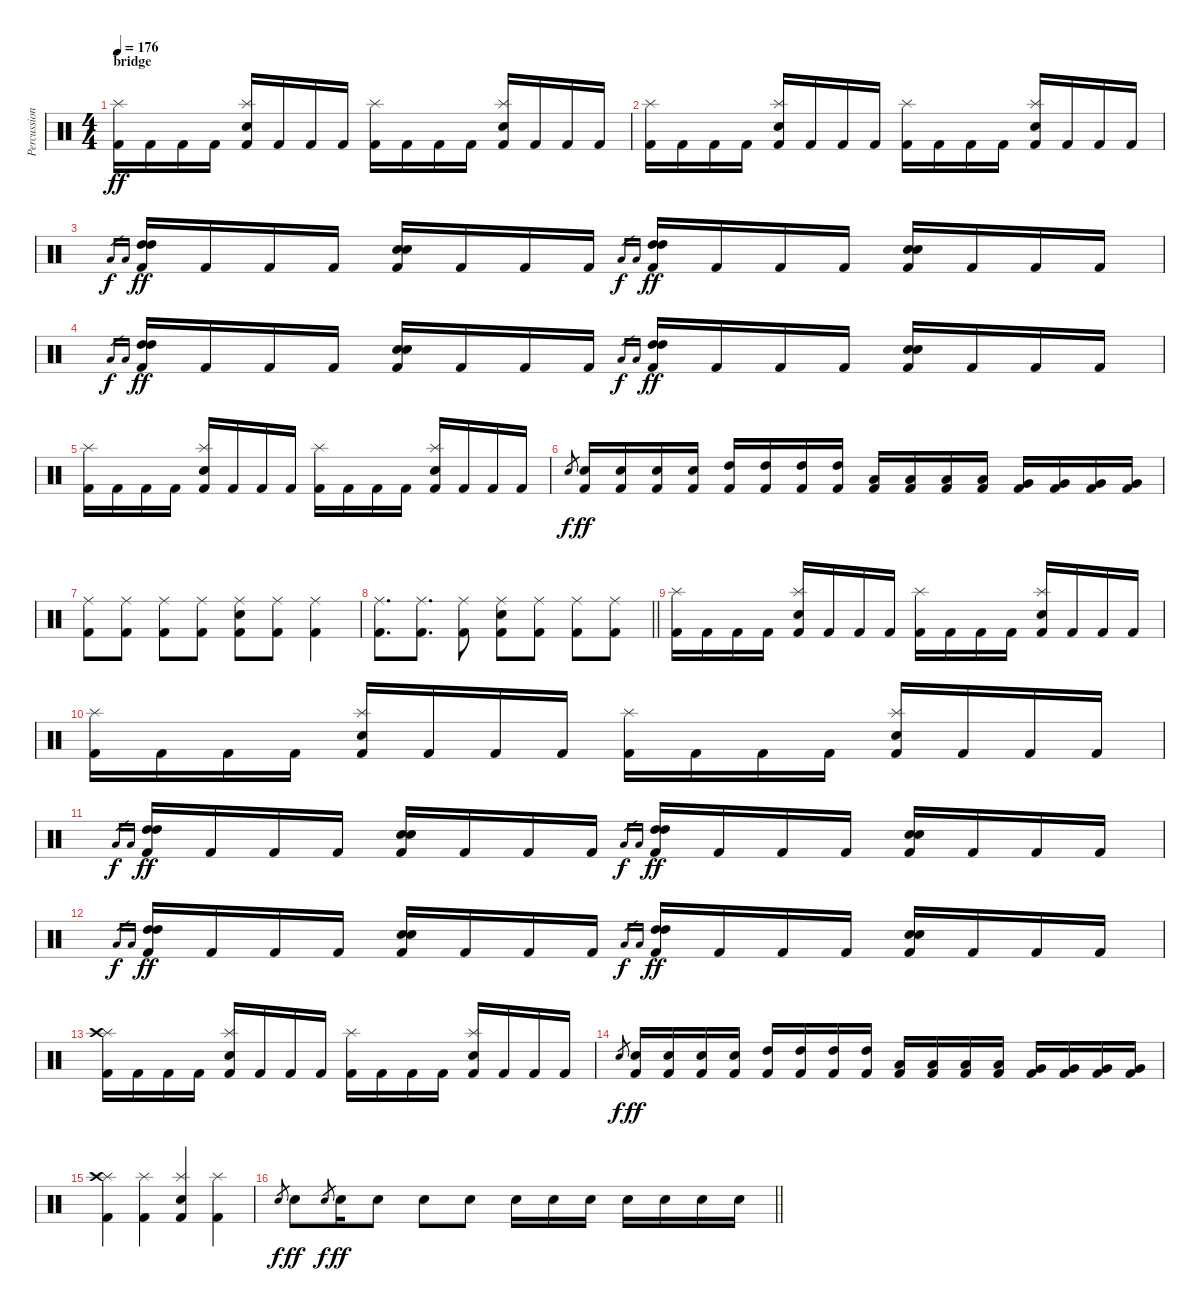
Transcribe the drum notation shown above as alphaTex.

\track ("Percussion" "Percussion") {instrument percussion}
\staff {score}
\articulation defaults
\ts (4 4)
\section ("" "bridge")
\tempo 176
\clef neutral
\ks c
("Kick (hit) 2" "Splash (hit)").16{dy ff} "Kick (hit) 2".16 "Kick (hit) 2".16 "Kick (hit) 2".16 ("Kick (hit) 2" "Electric Snare (hit)" "Splash (hit)").16 "Kick (hit) 2".16 "Kick (hit) 2".16 "Kick (hit) 2".16 ("Kick (hit) 2" "Splash (hit)").16 "Kick (hit) 2".16 "Kick (hit) 2".16 "Kick (hit) 2".16 ("Kick (hit) 2" "Electric Snare (hit)" "Splash (hit)").16 "Kick (hit) 2".16 "Kick (hit) 2".16 "Kick (hit) 2".16 |
("Kick (hit) 2" "Splash (hit)").16 "Kick (hit) 2".16 "Kick (hit) 2".16 "Kick (hit) 2".16 ("Kick (hit) 2" "Electric Snare (hit)" "Splash (hit)").16 "Kick (hit) 2".16 "Kick (hit) 2".16 "Kick (hit) 2".16 ("Kick (hit) 2" "Splash (hit)").16 "Kick (hit) 2".16 "Kick (hit) 2".16 "Kick (hit) 2".16 ("Kick (hit) 2" "Electric Snare (hit)" "Splash (hit)").16 "Kick (hit) 2".16 "Kick (hit) 2".16 "Kick (hit) 2".16 |
"Low Tom (hit)".16{gr dy f} "Low Tom (hit)".16{gr} ("Kick (hit) 2" "High Tom (hit)" "High Tom (hit)").16{dy ff} "Kick (hit) 2".16 "Kick (hit) 2".16 "Kick (hit) 2".16 ("Kick (hit) 2" "Electric Snare (hit)" "Electric Snare (hit)").16 "Kick (hit) 2".16 "Kick (hit) 2".16 "Kick (hit) 2".16 "Low Tom (hit)".16{gr dy f} "Low Tom (hit)".16{gr} ("Kick (hit) 2" "High Tom (hit)" "High Tom (hit)").16{dy ff} "Kick (hit) 2".16 "Kick (hit) 2".16 "Kick (hit) 2".16 ("Kick (hit) 2" "Electric Snare (hit)" "Electric Snare (hit)").16 "Kick (hit) 2".16 "Kick (hit) 2".16 "Kick (hit) 2".16 |
"Low Tom (hit)".16{gr dy f} "Low Tom (hit)".16{gr} ("Kick (hit) 2" "High Tom (hit)" "High Tom (hit)").16{dy ff} "Kick (hit) 2".16 "Kick (hit) 2".16 "Kick (hit) 2".16 ("Kick (hit) 2" "Electric Snare (hit)" "Electric Snare (hit)").16 "Kick (hit) 2".16 "Kick (hit) 2".16 "Kick (hit) 2".16 "Low Tom (hit)".16{gr dy f} "Low Tom (hit)".16{gr} ("Kick (hit) 2" "High Tom (hit)" "High Tom (hit)").16{dy ff} "Kick (hit) 2".16 "Kick (hit) 2".16 "Kick (hit) 2".16 ("Kick (hit) 2" "Electric Snare (hit)" "Electric Snare (hit)").16 "Kick (hit) 2".16 "Kick (hit) 2".16 "Kick (hit) 2".16 |
("Kick (hit) 2" "Splash (hit)").16 "Kick (hit) 2".16 "Kick (hit) 2".16 "Kick (hit) 2".16 ("Kick (hit) 2" "Electric Snare (hit)" "Splash (hit)").16 "Kick (hit) 2".16 "Kick (hit) 2".16 "Kick (hit) 2".16 ("Kick (hit) 2" "Splash (hit)").16 "Kick (hit) 2".16 "Kick (hit) 2".16 "Kick (hit) 2".16 ("Kick (hit) 2" "Electric Snare (hit)" "Splash (hit)").16 "Kick (hit) 2".16 "Kick (hit) 2".16 "Kick (hit) 2".16 |
"Electric Snare (hit)".8{gr dy f} ("Kick (hit) 2" "Electric Snare (hit)").16{dy ff} ("Kick (hit) 2" "Electric Snare (hit)").16 ("Kick (hit) 2" "Electric Snare (hit)").16 ("Kick (hit) 2" "Electric Snare (hit)").16 ("Kick (hit) 2" "High Tom (hit)").16 ("Kick (hit) 2" "High Tom (hit)").16 ("Kick (hit) 2" "High Tom (hit)").16 ("Kick (hit) 2" "High Tom (hit)").16 ("Kick (hit) 2" "Low Tom (hit)").16 ("Kick (hit) 2" "Low Tom (hit)").16 ("Kick (hit) 2" "Low Tom (hit)").16 ("Kick (hit) 2" "Low Tom (hit)").16 ("Kick (hit) 2" "Very Low Tom (hit)").16 ("Kick (hit) 2" "Very Low Tom (hit)").16 ("Kick (hit) 2" "Very Low Tom (hit)").16 ("Kick (hit) 2" "Very Low Tom (hit)").16 |
("Kick (hit) 2" "Ride (middle)").8 ("Kick (hit) 2" "Ride (middle)").8 ("Kick (hit) 2" "Ride (middle)").8 ("Kick (hit) 2" "Ride (middle)").8 ("Kick (hit) 2" "Electric Snare (hit)" "Ride (middle)").8 ("Kick (hit) 2" "Ride (middle)").8 ("Kick (hit) 2" "Ride (middle)").4 |
\barLineRight lightlight
("Kick (hit) 2" "Ride (middle)").8{d} ("Kick (hit) 2" "Ride (middle)").8{d} ("Kick (hit) 2" "Ride (middle)").8 ("Kick (hit) 2" "Electric Snare (hit)" "Ride (middle)").8 ("Kick (hit) 2" "Ride (middle)").8 ("Kick (hit) 2" "Ride (middle)").8 ("Kick (hit) 2" "Ride (middle)").8 |
("Kick (hit) 2" "Splash (hit)").16 "Kick (hit) 2".16 "Kick (hit) 2".16 "Kick (hit) 2".16 ("Kick (hit) 2" "Electric Snare (hit)" "Splash (hit)").16 "Kick (hit) 2".16 "Kick (hit) 2".16 "Kick (hit) 2".16 ("Kick (hit) 2" "Splash (hit)").16 "Kick (hit) 2".16 "Kick (hit) 2".16 "Kick (hit) 2".16 ("Kick (hit) 2" "Electric Snare (hit)" "Splash (hit)").16 "Kick (hit) 2".16 "Kick (hit) 2".16 "Kick (hit) 2".16 |
("Kick (hit) 2" "Splash (hit)").16 "Kick (hit) 2".16 "Kick (hit) 2".16 "Kick (hit) 2".16 ("Kick (hit) 2" "Electric Snare (hit)" "Splash (hit)").16 "Kick (hit) 2".16 "Kick (hit) 2".16 "Kick (hit) 2".16 ("Kick (hit) 2" "Splash (hit)").16 "Kick (hit) 2".16 "Kick (hit) 2".16 "Kick (hit) 2".16 ("Kick (hit) 2" "Electric Snare (hit)" "Splash (hit)").16 "Kick (hit) 2".16 "Kick (hit) 2".16 "Kick (hit) 2".16 |
"Low Tom (hit)".16{gr dy f} "Low Tom (hit)".16{gr} ("Kick (hit) 2" "High Tom (hit)" "High Tom (hit)").16{dy ff} "Kick (hit) 2".16 "Kick (hit) 2".16 "Kick (hit) 2".16 ("Kick (hit) 2" "Electric Snare (hit)" "Electric Snare (hit)").16 "Kick (hit) 2".16 "Kick (hit) 2".16 "Kick (hit) 2".16 "Low Tom (hit)".16{gr dy f} "Low Tom (hit)".16{gr} ("Kick (hit) 2" "High Tom (hit)" "High Tom (hit)").16{dy ff} "Kick (hit) 2".16 "Kick (hit) 2".16 "Kick (hit) 2".16 ("Kick (hit) 2" "Electric Snare (hit)" "Electric Snare (hit)").16 "Kick (hit) 2".16 "Kick (hit) 2".16 "Kick (hit) 2".16 |
"Low Tom (hit)".16{gr dy f} "Low Tom (hit)".16{gr} ("Kick (hit) 2" "High Tom (hit)" "High Tom (hit)").16{dy ff} "Kick (hit) 2".16 "Kick (hit) 2".16 "Kick (hit) 2".16 ("Kick (hit) 2" "Electric Snare (hit)" "Electric Snare (hit)").16 "Kick (hit) 2".16 "Kick (hit) 2".16 "Kick (hit) 2".16 "Low Tom (hit)".16{gr dy f} "Low Tom (hit)".16{gr} ("Kick (hit) 2" "High Tom (hit)" "High Tom (hit)").16{dy ff} "Kick (hit) 2".16 "Kick (hit) 2".16 "Kick (hit) 2".16 ("Kick (hit) 2" "Electric Snare (hit)" "Electric Snare (hit)").16 "Kick (hit) 2".16 "Kick (hit) 2".16 "Kick (hit) 2".16 |
("Kick (hit) 2" "Splash (hit)" "Crash high (hit)").16 "Kick (hit) 2".16 "Kick (hit) 2".16 "Kick (hit) 2".16 ("Kick (hit) 2" "Electric Snare (hit)" "Splash (hit)").16 "Kick (hit) 2".16 "Kick (hit) 2".16 "Kick (hit) 2".16 ("Kick (hit) 2" "Splash (hit)").16 "Kick (hit) 2".16 "Kick (hit) 2".16 "Kick (hit) 2".16 ("Kick (hit) 2" "Electric Snare (hit)" "Splash (hit)").16 "Kick (hit) 2".16 "Kick (hit) 2".16 "Kick (hit) 2".16 |
"Electric Snare (hit)".8{gr dy f} ("Kick (hit) 2" "Electric Snare (hit)").16{dy ff} ("Kick (hit) 2" "Electric Snare (hit)").16 ("Kick (hit) 2" "Electric Snare (hit)").16 ("Kick (hit) 2" "Electric Snare (hit)").16 ("Kick (hit) 2" "High Tom (hit)").16 ("Kick (hit) 2" "High Tom (hit)").16 ("Kick (hit) 2" "High Tom (hit)").16 ("Kick (hit) 2" "High Tom (hit)").16 ("Kick (hit) 2" "Low Tom (hit)").16 ("Kick (hit) 2" "Low Tom (hit)").16 ("Kick (hit) 2" "Low Tom (hit)").16 ("Kick (hit) 2" "Low Tom (hit)").16 ("Kick (hit) 2" "Very Low Tom (hit)").16 ("Kick (hit) 2" "Very Low Tom (hit)").16 ("Kick (hit) 2" "Very Low Tom (hit)").16 ("Kick (hit) 2" "Very Low Tom (hit)").16 |
("Kick (hit) 2" "Splash (hit)" "Crash high (hit)").4 ("Kick (hit) 2" "Splash (hit)").4 ("Kick (hit) 2" "Electric Snare (hit)" "Splash (hit)").4 ("Kick (hit) 2" "Splash (hit)").4 |
\barLineRight lightlight "Electric Snare (hit)"{sl}.8{gr dy f} "Electric Snare (hit)".8{dy ff} "Electric Snare (hit)".8{gr dy f} "Electric Snare (hit)".16{dy ff} "Electric Snare (hit)".8 "Electric Snare (hit)".8 "Electric Snare (hit)".8 "Electric Snare (hit)".16 "Electric Snare (hit)".16 "Electric Snare (hit)".16 "Electric Snare (hit)".16 "Electric Snare (hit)".16 "Electric Snare (hit)".16 "Electric Snare (hit)".16
